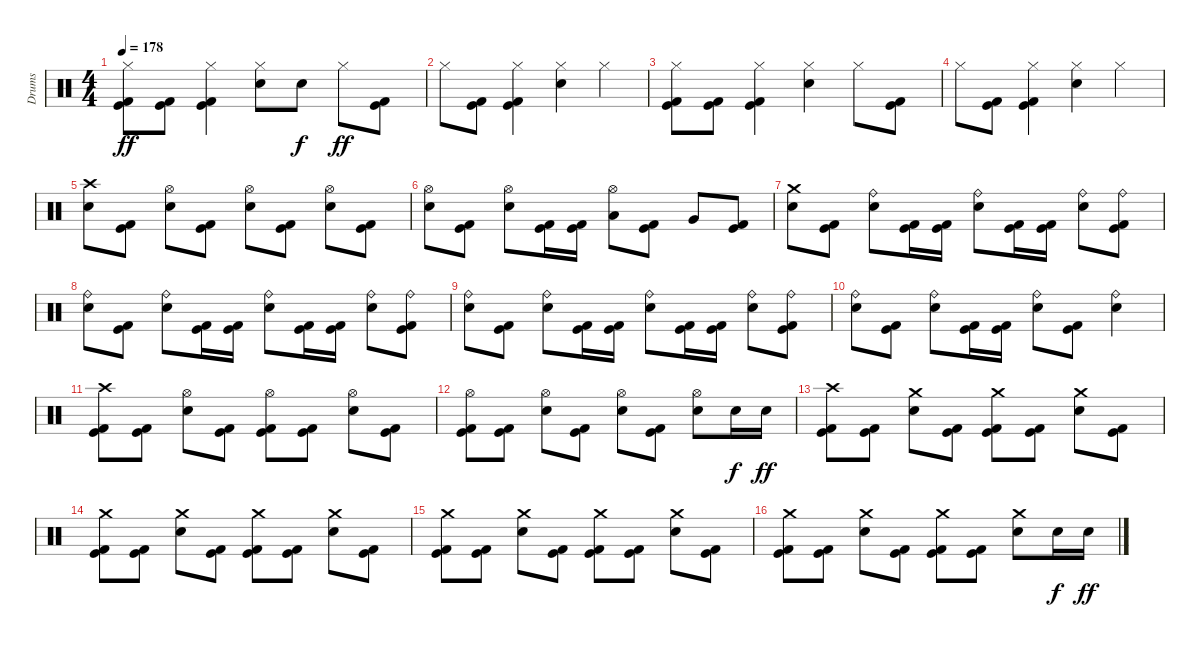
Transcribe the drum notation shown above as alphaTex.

\track ("Drums" "Drums") {instrument percussion}
\staff {score}
\articulation defaults
\ts (4 4)
\tempo 178
\clef neutral
\ks c
("Kick (hit)" "Kick (hit) 2" "Hi-Hat (closed)").8{dy ff} ("Kick (hit)" "Kick (hit) 2").8 ("Kick (hit)" "Kick (hit) 2" "Hi-Hat (closed)").4 ("Electric Snare (hit)" "Hi-Hat (closed)").8 "Electric Snare (hit)".8{dy f} "Hi-Hat (closed)".8{dy ff} ("Kick (hit)" "Kick (hit) 2").8 |
"Hi-Hat (closed)".8 ("Kick (hit)" "Kick (hit) 2").8 ("Kick (hit)" "Kick (hit) 2" "Hi-Hat (closed)").4 ("Electric Snare (hit)" "Hi-Hat (closed)").4 "Hi-Hat (closed)".4 |
("Kick (hit)" "Kick (hit) 2" "Hi-Hat (closed)").8 ("Kick (hit)" "Kick (hit) 2").8 ("Kick (hit)" "Kick (hit) 2" "Hi-Hat (closed)").4 ("Electric Snare (hit)" "Hi-Hat (closed)").4 "Hi-Hat (closed)".8 ("Kick (hit)" "Kick (hit) 2").8 |
"Hi-Hat (closed)".8 ("Kick (hit)" "Kick (hit) 2").8 ("Kick (hit)" "Kick (hit) 2" "Hi-Hat (closed)").4 ("Electric Snare (hit)" "Hi-Hat (closed)").4 "Hi-Hat (closed)".4 |
("Electric Snare (hit)" "Crash high (hit)").8 ("Kick (hit)" "Kick (hit) 2").8 ("Electric Snare (hit)" "Hi-Hat (open)").8 ("Kick (hit)" "Kick (hit) 2").8 ("Electric Snare (hit)" "Hi-Hat (open)").8 ("Kick (hit)" "Kick (hit) 2").8 ("Electric Snare (hit)" "Hi-Hat (open)").8 ("Kick (hit)" "Kick (hit) 2").8 |
("Electric Snare (hit)" "Hi-Hat (open)").8 ("Kick (hit)" "Kick (hit) 2").8 ("Electric Snare (hit)" "Hi-Hat (open)").8 ("Kick (hit)" "Kick (hit) 2").16 ("Kick (hit)" "Kick (hit) 2").16 ("Low Tom (hit)" "Hi-Hat (open)").8 ("Kick (hit)" "Kick (hit) 2").8 "Very Low Tom (hit)".8 ("Kick (hit)" "Kick (hit) 2").8 |
("Electric Snare (hit)" "Crash medium (hit)").8 ("Kick (hit)" "Kick (hit) 2").8 ("Electric Snare (hit)" "Ride (bell)").8 ("Kick (hit)" "Kick (hit) 2").16 ("Kick (hit)" "Kick (hit) 2").16 ("Electric Snare (hit)" "Ride (bell)").8 ("Kick (hit)" "Kick (hit) 2").16 ("Kick (hit)" "Kick (hit) 2").16 ("Electric Snare (hit)" "Ride (bell)").8 ("Kick (hit)" "Kick (hit) 2" "Ride (bell)").8 |
("Electric Snare (hit)" "Ride (bell)").8 ("Kick (hit)" "Kick (hit) 2").8 ("Electric Snare (hit)" "Ride (bell)").8 ("Kick (hit)" "Kick (hit) 2").16 ("Kick (hit)" "Kick (hit) 2").16 ("Electric Snare (hit)" "Ride (bell)").8 ("Kick (hit)" "Kick (hit) 2").16 ("Kick (hit)" "Kick (hit) 2").16 ("Electric Snare (hit)" "Ride (bell)").8 ("Kick (hit)" "Kick (hit) 2" "Ride (bell)").8 |
("Electric Snare (hit)" "Ride (bell)").8 ("Kick (hit)" "Kick (hit) 2").8 ("Electric Snare (hit)" "Ride (bell)").8 ("Kick (hit)" "Kick (hit) 2").16 ("Kick (hit)" "Kick (hit) 2").16 ("Electric Snare (hit)" "Ride (bell)").8 ("Kick (hit)" "Kick (hit) 2").16 ("Kick (hit)" "Kick (hit) 2").16 ("Electric Snare (hit)" "Ride (bell)").8 ("Kick (hit)" "Kick (hit) 2" "Ride (bell)").8 |
("Electric Snare (hit)" "Ride (bell)").8 ("Kick (hit)" "Kick (hit) 2").8 ("Electric Snare (hit)" "Ride (bell)").8 ("Kick (hit)" "Kick (hit) 2").16 ("Kick (hit)" "Kick (hit) 2").16 ("Electric Snare (hit)" "Ride (bell)").8 ("Kick (hit)" "Kick (hit) 2").8 ("Electric Snare (hit)" "Ride (bell)").4 |
("Kick (hit)" "Kick (hit) 2" "Crash high (hit)").8 ("Kick (hit)" "Kick (hit) 2").8 ("Electric Snare (hit)" "Hi-Hat (open)").8 ("Kick (hit)" "Kick (hit) 2").8 ("Kick (hit)" "Kick (hit) 2" "Hi-Hat (open)").8 ("Kick (hit)" "Kick (hit) 2").8 ("Electric Snare (hit)" "Hi-Hat (open)").8 ("Kick (hit)" "Kick (hit) 2").8 |
("Kick (hit)" "Kick (hit) 2" "Hi-Hat (open)").8 ("Kick (hit)" "Kick (hit) 2").8 ("Electric Snare (hit)" "Hi-Hat (open)").8 ("Kick (hit)" "Kick (hit) 2").8 ("Electric Snare (hit)" "Hi-Hat (open)").8 ("Kick (hit)" "Kick (hit) 2").8 ("Electric Snare (hit)" "Hi-Hat (open)").8 "Electric Snare (hit)".16{dy f} "Electric Snare (hit)".16{dy ff} |
("Kick (hit)" "Kick (hit) 2" "Crash high (hit)").8 ("Kick (hit)" "Kick (hit) 2").8 ("Electric Snare (hit)" "Crash medium (hit)").8 ("Kick (hit)" "Kick (hit) 2").8 ("Kick (hit)" "Kick (hit) 2" "Crash medium (hit)").8 ("Kick (hit)" "Kick (hit) 2").8 ("Electric Snare (hit)" "Crash medium (hit)").8 ("Kick (hit)" "Kick (hit) 2").8 |
("Kick (hit)" "Kick (hit) 2" "Crash medium (hit)").8 ("Kick (hit)" "Kick (hit) 2").8 ("Electric Snare (hit)" "Crash medium (hit)").8 ("Kick (hit)" "Kick (hit) 2").8 ("Kick (hit)" "Kick (hit) 2" "Crash medium (hit)").8 ("Kick (hit)" "Kick (hit) 2").8 ("Electric Snare (hit)" "Crash medium (hit)").8 ("Kick (hit)" "Kick (hit) 2").8 |
("Kick (hit)" "Kick (hit) 2" "Crash medium (hit)").8 ("Kick (hit)" "Kick (hit) 2").8 ("Electric Snare (hit)" "Crash medium (hit)").8 ("Kick (hit)" "Kick (hit) 2").8 ("Kick (hit)" "Kick (hit) 2" "Crash medium (hit)").8 ("Kick (hit)" "Kick (hit) 2").8 ("Electric Snare (hit)" "Crash medium (hit)").8 ("Kick (hit)" "Kick (hit) 2").8 |
("Kick (hit)" "Kick (hit) 2" "Crash medium (hit)").8 ("Kick (hit)" "Kick (hit) 2").8 ("Electric Snare (hit)" "Crash medium (hit)").8 ("Kick (hit)" "Kick (hit) 2").8 ("Kick (hit)" "Kick (hit) 2" "Crash medium (hit)").8 ("Kick (hit)" "Kick (hit) 2").8 ("Electric Snare (hit)" "Crash medium (hit)").8 "Electric Snare (hit)".16{dy f} "Electric Snare (hit)".16{dy ff}
